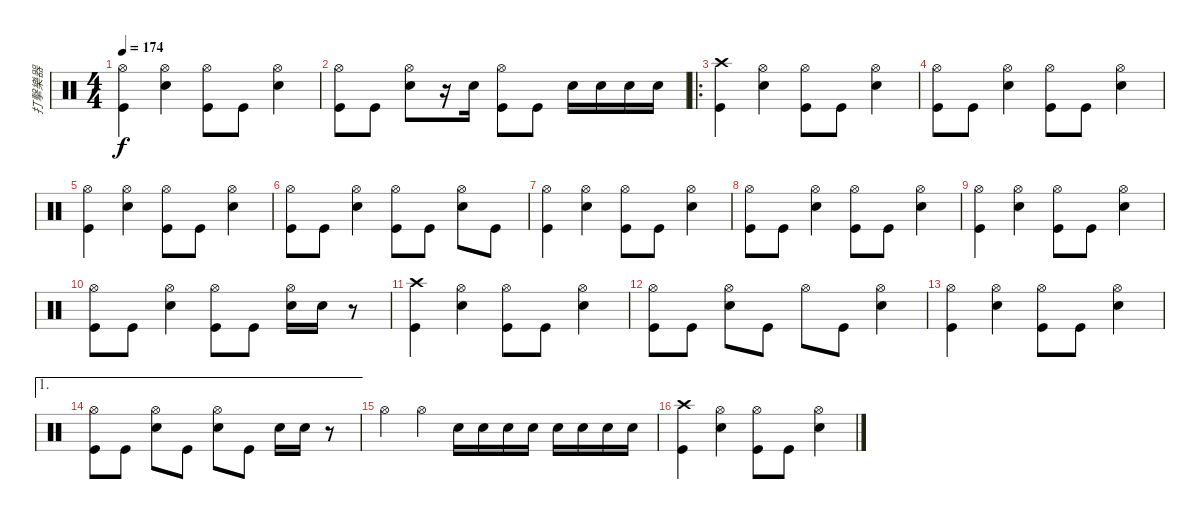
\track ("打擊樂器" "打擊樂器") {instrument percussion}
\staff {score}
\articulation defaults
\ts (4 4)
\tempo 174
\clef neutral
\ks c
("Hi-Hat (open)" "Kick (hit)").4{dy f} ("Hi-Hat (open)" "Snare (hit) 2").4 ("Kick (hit)" "Hi-Hat (open)").8 "Kick (hit)".8 ("Hi-Hat (open)" "Snare (hit) 2").4 |
("Hi-Hat (open)" "Kick (hit)").8 "Kick (hit)".8 ("Hi-Hat (open)" "Snare (hit) 2").8 r.16 "Snare (hit) 2".16 ("Hi-Hat (open)" "Kick (hit)").8 "Kick (hit)".8 "Snare (hit) 2".16 "Snare (hit) 2".16 "Snare (hit) 2".16 "Snare (hit) 2".16 |
\ro
("Crash high (hit)" "Kick (hit)").4 ("Hi-Hat (open)" "Snare (hit) 2").4 ("Kick (hit)" "Hi-Hat (open)").8 "Kick (hit)".8 ("Hi-Hat (open)" "Snare (hit) 2").4 |
("Hi-Hat (open)" "Kick (hit)").8 "Kick (hit)".8 ("Hi-Hat (open)" "Snare (hit) 2").4 ("Hi-Hat (open)" "Kick (hit)").8 "Kick (hit)".8 ("Hi-Hat (open)" "Snare (hit) 2").4 |
("Hi-Hat (open)" "Kick (hit)").4 ("Hi-Hat (open)" "Snare (hit) 2").4 ("Kick (hit)" "Hi-Hat (open)").8 "Kick (hit)".8 ("Hi-Hat (open)" "Snare (hit) 2").4 |
("Hi-Hat (open)" "Kick (hit)").8 "Kick (hit)".8 ("Hi-Hat (open)" "Snare (hit) 2").4 ("Hi-Hat (open)" "Kick (hit)").8 "Kick (hit)".8 ("Hi-Hat (open)" "Snare (hit) 2").8 "Kick (hit)".8 |
("Hi-Hat (open)" "Kick (hit)").4 ("Hi-Hat (open)" "Snare (hit) 2").4 ("Kick (hit)" "Hi-Hat (open)").8 "Kick (hit)".8 ("Hi-Hat (open)" "Snare (hit) 2").4 |
("Hi-Hat (open)" "Kick (hit)").8 "Kick (hit)".8 ("Hi-Hat (open)" "Snare (hit) 2").4 ("Hi-Hat (open)" "Kick (hit)").8 "Kick (hit)".8 ("Hi-Hat (open)" "Snare (hit) 2").4 |
("Hi-Hat (open)" "Kick (hit)").4 ("Hi-Hat (open)" "Snare (hit) 2").4 ("Kick (hit)" "Hi-Hat (open)").8 "Kick (hit)".8 ("Hi-Hat (open)" "Snare (hit) 2").4 |
("Hi-Hat (open)" "Kick (hit)").8 "Kick (hit)".8 ("Hi-Hat (open)" "Snare (hit) 2").4 ("Hi-Hat (open)" "Kick (hit)").8 "Kick (hit)".8 ("Hi-Hat (open)" "Snare (hit) 2").16 "Snare (hit) 2".16 r.8 |
("Crash high (hit)" "Kick (hit)").4 ("Hi-Hat (open)" "Snare (hit) 2").4 ("Kick (hit)" "Hi-Hat (open)").8 "Kick (hit)".8 ("Hi-Hat (open)" "Snare (hit) 2").4 |
("Hi-Hat (open)" "Kick (hit)").8 "Kick (hit)".8 ("Hi-Hat (open)" "Snare (hit) 2").8 "Kick (hit)".8 "Hi-Hat (open)".8 "Kick (hit)".8 ("Snare (hit) 2" "Hi-Hat (open)").4 |
("Hi-Hat (open)" "Kick (hit)").4 ("Hi-Hat (open)" "Snare (hit) 2").4 ("Kick (hit)" "Hi-Hat (open)").8 "Kick (hit)".8 ("Hi-Hat (open)" "Snare (hit) 2").4 |
\ae 1
("Hi-Hat (open)" "Kick (hit)").8 "Kick (hit)".8 ("Hi-Hat (open)" "Snare (hit) 2").8 "Kick (hit)".8 ("Snare (hit) 2" "Hi-Hat (open)").8 "Kick (hit)".8 "Snare (hit) 2".16 "Snare (hit) 2".16 r.8 |
"Hi-Hat (open)".4 "Hi-Hat (open)".4 "Snare (hit) 2".16 "Snare (hit) 2".16 "Snare (hit) 2".16 "Snare (hit) 2".16 "Snare (hit) 2".16 "Snare (hit) 2".16 "Snare (hit) 2".16 "Snare (hit) 2".16 |
("Crash high (hit)" "Kick (hit)").4 ("Hi-Hat (open)" "Snare (hit) 2").4 ("Kick (hit)" "Hi-Hat (open)").8 "Kick (hit)".8 ("Hi-Hat (open)" "Snare (hit) 2").4
